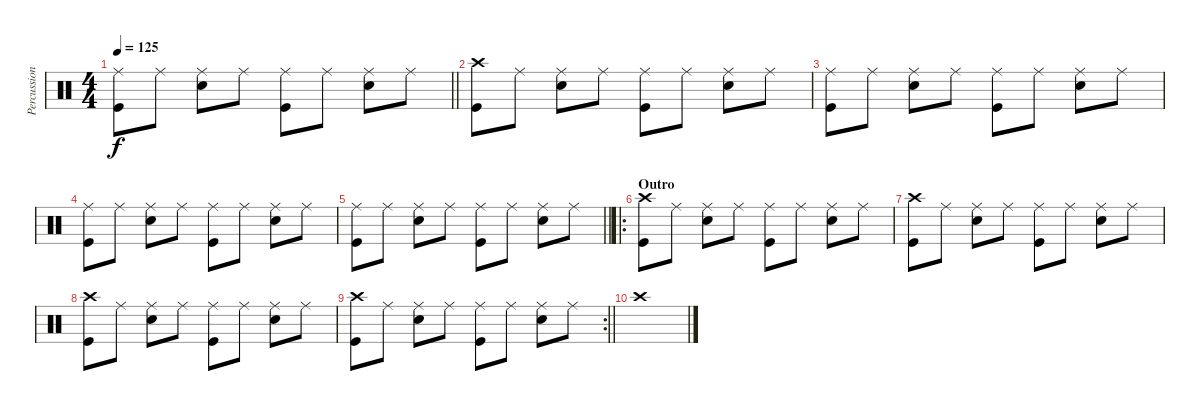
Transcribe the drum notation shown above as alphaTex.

\track ("Percussion" "Percussion") {instrument percussion}
\staff {score}
\articulation defaults
\ts (4 4)
\tempo 125
\clef neutral
\barLineRight lightlight
\ks c
("Kick (hit)" "Ride (middle)").8{dy f} "Ride (middle)".8 ("Snare (hit) 2" "Ride (middle)").8 "Ride (middle)".8 ("Kick (hit)" "Ride (middle)").8 "Ride (middle)".8 ("Snare (hit) 2" "Ride (middle)").8 "Ride (middle)".8 |
("Kick (hit)" "Crash high (hit)").8 "Ride (middle)".8 ("Snare (hit) 2" "Ride (middle)").8 "Ride (middle)".8 ("Kick (hit)" "Ride (middle)").8 "Ride (middle)".8 ("Snare (hit) 2" "Ride (middle)").8 "Ride (middle)".8 |
("Kick (hit)" "Ride (middle)").8 "Ride (middle)".8 ("Snare (hit) 2" "Ride (middle)").8 "Ride (middle)".8 ("Kick (hit)" "Ride (middle)").8 "Ride (middle)".8 ("Snare (hit) 2" "Ride (middle)").8 "Ride (middle)".8 |
("Kick (hit)" "Ride (middle)").8 "Ride (middle)".8 ("Snare (hit) 2" "Ride (middle)").8 "Ride (middle)".8 ("Kick (hit)" "Ride (middle)").8 "Ride (middle)".8 ("Snare (hit) 2" "Ride (middle)").8 "Ride (middle)".8 |
\barLineRight lightlight
("Kick (hit)" "Ride (middle)").8 "Ride (middle)".8 ("Snare (hit) 2" "Ride (middle)").8 "Ride (middle)".8 ("Kick (hit)" "Ride (middle)").8 "Ride (middle)".8 ("Snare (hit) 2" "Ride (middle)").8 "Ride (middle)".8 |
\ro
\section ("" "Outro")
("Kick (hit)" "Crash high (hit)").8 "Ride (middle)".8 ("Snare (hit) 2" "Ride (middle)").8 "Ride (middle)".8 ("Kick (hit)" "Ride (middle)").8 "Ride (middle)".8 ("Snare (hit) 2" "Ride (middle)").8 "Ride (middle)".8 |
("Kick (hit)" "Crash high (hit)").8 "Ride (middle)".8 ("Snare (hit) 2" "Ride (middle)").8 "Ride (middle)".8 ("Kick (hit)" "Ride (middle)").8 "Ride (middle)".8 ("Snare (hit) 2" "Ride (middle)").8 "Ride (middle)".8 |
("Kick (hit)" "Crash high (hit)").8 "Ride (middle)".8 ("Snare (hit) 2" "Ride (middle)").8 "Ride (middle)".8 ("Kick (hit)" "Ride (middle)").8 "Ride (middle)".8 ("Snare (hit) 2" "Ride (middle)").8 "Ride (middle)".8 |
\rc 2
\barLineRight lightlight
("Kick (hit)" "Crash high (hit)").8 "Ride (middle)".8 ("Snare (hit) 2" "Ride (middle)").8 "Ride (middle)".8 ("Kick (hit)" "Ride (middle)").8 "Ride (middle)".8 ("Snare (hit) 2" "Ride (middle)").8 "Ride (middle)".8 |
"Crash high (hit)".1
